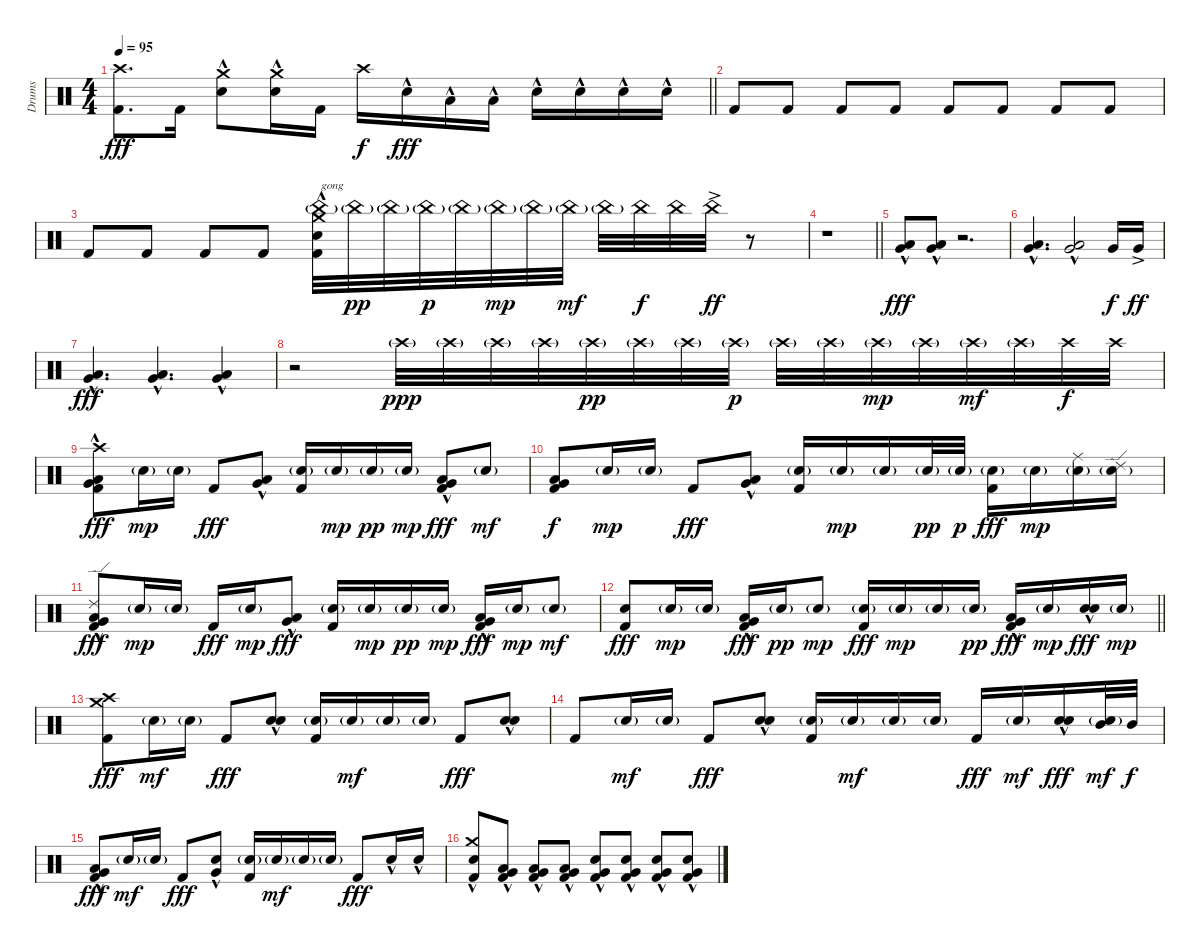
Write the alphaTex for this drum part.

\track ("Drums" "Drums") {instrument percussion}
\staff {score}
\articulation defaults
\ts (4 4)
\tempo 95
\clef neutral
\barLineRight lightlight
\ks c
("Crash high (hit)" "Kick (hit) 2").8{d dy fff} "Kick (hit) 2".16 ("Crash medium (hit)" "Electric Snare (hit)"{hac}).8 ("Crash medium (hit)" "Electric Snare (hit)"{hac}).16 "Kick (hit) 2".16 "Crash high (hit)".16{dy f} "Electric Snare (hit)"{hac}.16{dy fff} "Low Tom (hit)"{hac}.16 "Low Tom (hit)"{hac}.16 "Electric Snare (hit)"{hac}.16 "Electric Snare (hit)"{hac}.16 "Electric Snare (hit)"{hac}.16 "Electric Snare (hit)"{hac}.16 |
"Kick (hit) 2".8 "Kick (hit) 2".8 "Kick (hit) 2".8 "Kick (hit) 2".8 "Kick (hit) 2".8 "Kick (hit) 2".8 "Kick (hit) 2".8 "Kick (hit) 2".8 |
"Kick (hit) 2".8 "Kick (hit) 2".8 "Kick (hit) 2".8 "Kick (hit) 2".8 ("Crash medium (hit)" "China (hit)"{g} "Electric Snare (hit)"{hac} "Kick (hit) 2").32{txt "gong"} "China (hit)"{g}.32{dy pp} "China (hit)"{g}.32 "China (hit)"{g}.32{dy p} "China (hit)"{g}.32 "China (hit)"{g}.32{dy mp} "China (hit)"{g}.32 "China (hit)"{g}.32{dy mf} "China (hit)"{g}.32 "China (hit)".32{dy f} "China (hit)".32 "China (hit)"{ac}.32{dy ff} r.8 |
\barLineRight lightlight
r.1 |
("Very Low Tom (hit)"{hac} "Low Floor Tom (hit)"{hac}).8{dy fff volume 12} ("Very Low Tom (hit)"{hac} "Low Floor Tom (hit)"{hac}).8 r.2{d} |
("Very Low Tom (hit)"{hac} "Low Floor Tom (hit)"{hac}).4{d} ("Very Low Tom (hit)"{hac} "Low Floor Tom (hit)"{hac}).2 "Very Low Tom (hit)".16{dy f} "Very Low Tom (hit)"{ac}.16{dy ff} |
("Very Low Tom (hit)"{hac} "Low Floor Tom (hit)"{hac}).4{d dy fff} ("Very Low Tom (hit)"{hac} "Low Floor Tom (hit)"{hac}).4{d} ("Very Low Tom (hit)"{hac} "Low Floor Tom (hit)"{hac}).4 |
r.2 "Crash high (hit)"{g}.32{dy ppp volume 10} "Crash high (hit)"{g}.32 "Crash high (hit)"{g}.32 "Crash high (hit)"{g}.32 "Crash high (hit)"{g}.32{dy pp} "Crash high (hit)"{g}.32 "Crash high (hit)"{g}.32 "Crash high (hit)"{g}.32{dy p} "Crash high (hit)"{g}.32 "Crash high (hit)"{g}.32 "Crash high (hit)"{g}.32{dy mp} "Crash high (hit)"{g}.32 "Crash high (hit)"{g}.32{dy mf} "Crash high (hit)"{g}.32 "Crash high (hit)".32{dy f} "Crash high (hit)".32 |
("Crash high (hit)" "Very Low Tom (hit)"{hac} "Low Floor Tom (hit)"{hac} "Kick (hit) 2").8{dy fff} "Snare (hit) 2"{g}.16{dy mp} "Snare (hit) 2"{g}.16 "Kick (hit) 2".8{dy fff} ("Very Low Tom (hit)"{hac} "Low Floor Tom (hit)"{hac}).8 ("Snare (hit) 2"{g} "Kick (hit) 2").16 "Snare (hit) 2"{g}.16{dy mp} "Snare (hit) 2"{g}.16{dy pp} "Snare (hit) 2"{g}.16{dy mp} ("Very Low Tom (hit)"{hac} "Low Floor Tom (hit)"{hac} "Kick (hit) 2").8{dy fff} "Snare (hit) 2"{g}.8{dy mf} |
("Very Low Tom (hit)" "Low Floor Tom (hit)" "Kick (hit) 2").8{dy f} "Snare (hit) 2"{g}.16{dy mp} "Snare (hit) 2"{g}.16 "Kick (hit) 2".8{dy fff} ("Very Low Tom (hit)"{hac} "Low Floor Tom (hit)"{hac}).8 ("Snare (hit) 2"{g} "Kick (hit) 2").16 "Snare (hit) 2"{g}.16{dy mp} "Snare (hit) 2"{g}.16 "Snare (hit) 2"{g}.32{dy pp} "Snare (hit) 2"{g}.32{dy p} ("Snare (hit) 2"{g} "Kick (hit) 2").16{dy fff} "Snare (hit) 2"{g}.16{dy mp} ("Ride (middle)" "Snare (hit) 2"{g}).16 ("Ride (edge) 2" "Snare (hit) 2"{g}).16 |
("Ride (edge) 2" "Very Low Tom (hit)"{hac} "Low Floor Tom (hit)"{hac} "Kick (hit) 2").8{dy fff} "Snare (hit) 2"{g}.16{dy mp} "Snare (hit) 2"{g}.16 "Kick (hit) 2".16{dy fff} "Snare (hit) 2"{g}.16{dy mp} ("Very Low Tom (hit)"{hac} "Low Floor Tom (hit)"{hac}).8{dy fff} ("Snare (hit) 2"{g} "Kick (hit) 2").16 "Snare (hit) 2"{g}.16{dy mp} "Snare (hit) 2"{g}.16{dy pp} "Snare (hit) 2"{g}.16{dy mp} ("Very Low Tom (hit)"{hac} "Low Floor Tom (hit)"{hac} "Kick (hit) 2").16{dy fff} "Snare (hit) 2"{g}.16{dy mp} "Snare (hit) 2"{g}.8{dy mf} |
\barLineRight lightlight
("Snare (hit) 2" "Kick (hit) 2").8{dy fff} "Snare (hit) 2"{g}.16{dy mp} "Snare (hit) 2"{g}.16 ("Low Tom (hit)"{hac} "Very Low Tom (hit)"{hac} "Kick (hit) 2").16{dy fff} "Snare (hit) 2"{g}.16{dy pp} "Snare (hit) 2"{g}.8{dy mp} ("Snare (hit) 2"{g} "Kick (hit) 2").16{dy fff} "Snare (hit) 2"{g}.16{dy mp} "Snare (hit) 2"{g}.16 "Snare (hit) 2"{g}.16{dy pp} ("Low Tom (hit)"{hac} "Very Low Tom (hit)"{hac} "Kick (hit) 2").16{dy fff} "Snare (hit) 2"{g}.16{dy mp} ("Electric Snare (hit)"{hac} "Electric Snare (hit)"{hac}).16{bd 120 dy fff} "Snare (hit) 2"{g}.16{dy mp} |
("Crash medium (hit)" "Crash high (hit)" "Kick (hit) 2").8{dy fff} "Snare (hit) 2"{g}.16{dy mf} "Snare (hit) 2"{g}.16 "Kick (hit) 2".8{dy fff} ("Electric Snare (hit)"{hac} "Electric Snare (hit)"{hac}).8{bd 120} ("Snare (hit) 2"{g} "Kick (hit) 2").16 "Snare (hit) 2"{g}.16{dy mf} "Snare (hit) 2"{g}.16 "Snare (hit) 2"{g}.16 "Kick (hit) 2".8{dy fff} ("Electric Snare (hit)"{hac} "Electric Snare (hit)"{hac}).8{bd 120} |
"Kick (hit) 2".8 "Snare (hit) 2"{g}.16{dy mf} "Snare (hit) 2"{g}.16 "Kick (hit) 2".8{dy fff} ("Electric Snare (hit)"{hac} "Electric Snare (hit)"{hac}).8 ("Snare (hit) 2"{g} "Kick (hit) 2").16 "Snare (hit) 2"{g}.16{dy mf} "Snare (hit) 2"{g}.16 "Snare (hit) 2"{g}.16 "Kick (hit) 2".16{dy fff} "Snare (hit) 2"{g}.16{dy mf} ("Electric Snare (hit)"{hac} "Electric Snare (hit)"{hac}).16{dy fff} ("Mid Tom (hit)" "Snare (hit) 2"{g}).32{dy mf} "Mid Tom (hit)".32{dy f} |
("Low Tom (hit)"{hac} "Very Low Tom (hit)"{hac} "Kick (hit) 2").8{dy fff} "Snare (hit) 2"{g}.16{dy mf} "Snare (hit) 2"{g}.16 "Kick (hit) 2".8{dy fff} ("Electric Snare (hit)"{hac} "Very Low Tom (hit)"{hac}).8 ("Snare (hit) 2"{g} "Kick (hit) 2").16 "Snare (hit) 2"{g}.16{dy mf} "Snare (hit) 2"{g}.16 "Snare (hit) 2"{g}.16 "Kick (hit) 2".8{dy fff} "Electric Snare (hit)"{hac}.16 "Electric Snare (hit)"{hac}.16 |
("Crash medium (hit)" "Electric Snare (hit)"{hac} "Kick (hit) 2").8 ("Low Tom (hit)"{hac} "Very Low Tom (hit)"{hac} "Kick (hit) 2").8 ("Low Tom (hit)"{hac} "Very Low Tom (hit)"{hac} "Kick (hit) 2").8 ("Low Tom (hit)"{hac} "Very Low Tom (hit)"{hac} "Kick (hit) 2").8 ("Electric Snare (hit)"{hac} "Very Low Tom (hit)"{hac} "Kick (hit) 2").8 ("Electric Snare (hit)"{hac} "Very Low Tom (hit)"{hac} "Kick (hit) 2").8 ("Electric Snare (hit)"{hac} "Very Low Tom (hit)"{hac} "Kick (hit) 2").8 ("Electric Snare (hit)"{hac} "Very Low Tom (hit)"{hac} "Kick (hit) 2").8
